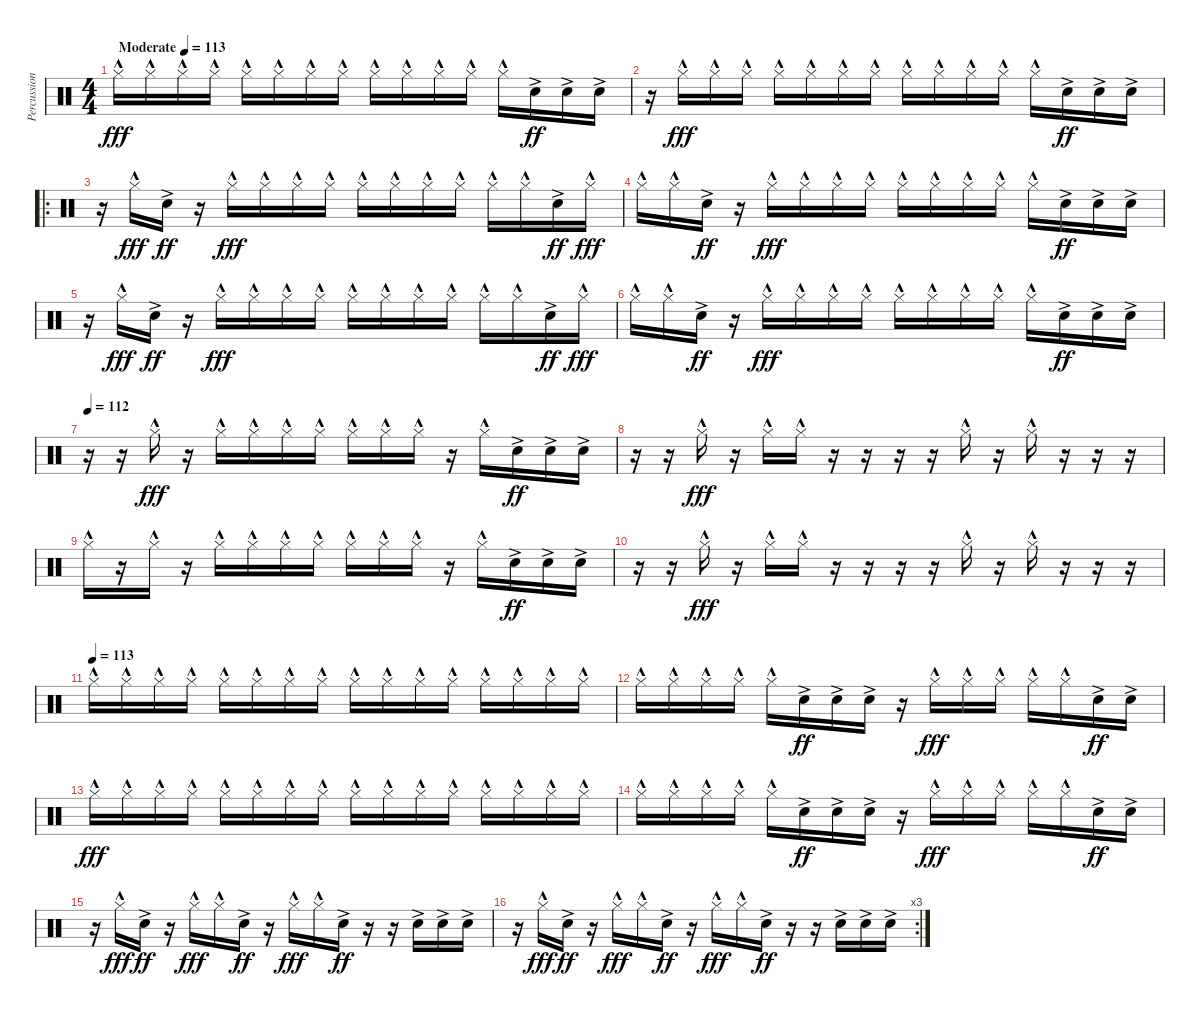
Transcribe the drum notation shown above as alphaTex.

\track ("Percussion" "Percussion") {instrument percussion}
\staff {score}
\articulation defaults
\ts (4 4)
\tempo (113 "Moderate")
\clef neutral
\ks c "Hi-Hat (closed)"{hac}.16{dy fff} "Hi-Hat (closed)"{hac}.16 "Hi-Hat (closed)"{hac}.16 "Hi-Hat (closed)"{hac}.16 "Hi-Hat (closed)"{hac}.16 "Hi-Hat (closed)"{hac}.16 "Hi-Hat (closed)"{hac}.16 "Hi-Hat (closed)"{hac}.16 "Hi-Hat (closed)"{hac}.16 "Hi-Hat (closed)"{hac}.16 "Hi-Hat (closed)"{hac}.16 "Hi-Hat (closed)"{hac}.16 "Hi-Hat (closed)"{hac}.16 "Snare (hit) 2"{ac}.16{dy ff} "Snare (hit) 2"{ac}.16 "Snare (hit) 2"{ac}.16
|
r.16 "Hi-Hat (closed)"{hac}.16{dy fff} "Hi-Hat (closed)"{hac}.16 "Hi-Hat (closed)"{hac}.16 "Hi-Hat (closed)"{hac}.16 "Hi-Hat (closed)"{hac}.16 "Hi-Hat (closed)"{hac}.16 "Hi-Hat (closed)"{hac}.16 "Hi-Hat (closed)"{hac}.16 "Hi-Hat (closed)"{hac}.16 "Hi-Hat (closed)"{hac}.16 "Hi-Hat (closed)"{hac}.16 "Hi-Hat (closed)"{hac}.16 "Snare (hit) 2"{ac}.16{dy ff} "Snare (hit) 2"{ac}.16 "Snare (hit) 2"{ac}.16 |
\ro
r.16 "Hi-Hat (closed)"{hac}.16{dy fff} "Snare (hit) 2"{ac}.16{dy ff} r.16 "Hi-Hat (closed)"{hac}.16{dy fff} "Hi-Hat (closed)"{hac}.16 "Hi-Hat (closed)"{hac}.16 "Hi-Hat (closed)"{hac}.16 "Hi-Hat (closed)"{hac}.16 "Hi-Hat (closed)"{hac}.16 "Hi-Hat (closed)"{hac}.16 "Hi-Hat (closed)"{hac}.16 "Hi-Hat (closed)"{hac}.16 "Hi-Hat (closed)"{hac}.16 "Snare (hit) 2"{ac}.16{dy ff} "Hi-Hat (closed)"{hac}.16{dy fff} |
"Hi-Hat (closed)"{hac}.16 "Hi-Hat (closed)"{hac}.16 "Snare (hit) 2"{ac}.16{dy ff} r.16 "Hi-Hat (closed)"{hac}.16{dy fff} "Hi-Hat (closed)"{hac}.16 "Hi-Hat (closed)"{hac}.16 "Hi-Hat (closed)"{hac}.16 "Hi-Hat (closed)"{hac}.16 "Hi-Hat (closed)"{hac}.16 "Hi-Hat (closed)"{hac}.16 "Hi-Hat (closed)"{hac}.16 "Hi-Hat (closed)"{hac}.16 "Snare (hit) 2"{ac}.16{dy ff} "Snare (hit) 2"{ac}.16 "Snare (hit) 2"{ac}.16 |
r.16 "Hi-Hat (closed)"{hac}.16{dy fff} "Snare (hit) 2"{ac}.16{dy ff} r.16 "Hi-Hat (closed)"{hac}.16{dy fff} "Hi-Hat (closed)"{hac}.16 "Hi-Hat (closed)"{hac}.16 "Hi-Hat (closed)"{hac}.16 "Hi-Hat (closed)"{hac}.16 "Hi-Hat (closed)"{hac}.16 "Hi-Hat (closed)"{hac}.16 "Hi-Hat (closed)"{hac}.16 "Hi-Hat (closed)"{hac}.16 "Hi-Hat (closed)"{hac}.16 "Snare (hit) 2"{ac}.16{dy ff} "Hi-Hat (closed)"{hac}.16{dy fff} |
"Hi-Hat (closed)"{hac}.16 "Hi-Hat (closed)"{hac}.16 "Snare (hit) 2"{ac}.16{dy ff} r.16 "Hi-Hat (closed)"{hac}.16{dy fff} "Hi-Hat (closed)"{hac}.16 "Hi-Hat (closed)"{hac}.16 "Hi-Hat (closed)"{hac}.16 "Hi-Hat (closed)"{hac}.16 "Hi-Hat (closed)"{hac}.16 "Hi-Hat (closed)"{hac}.16 "Hi-Hat (closed)"{hac}.16 "Hi-Hat (closed)"{hac}.16 "Snare (hit) 2"{ac}.16{dy ff} "Snare (hit) 2"{ac}.16 "Snare (hit) 2"{ac}.16 |
\tempo 112
r.16 r.16 "Hi-Hat (closed)"{hac}.16{dy fff} r.16 "Hi-Hat (closed)"{hac}.16 "Hi-Hat (closed)"{hac}.16 "Hi-Hat (closed)"{hac}.16 "Hi-Hat (closed)"{hac}.16 "Hi-Hat (closed)"{hac}.16 "Hi-Hat (closed)"{hac}.16 "Hi-Hat (closed)"{hac}.16 r.16 "Hi-Hat (closed)"{hac}.16 "Snare (hit) 2"{ac}.16{dy ff} "Snare (hit) 2"{ac}.16 "Snare (hit) 2"{ac}.16 |
r.16 r.16 "Hi-Hat (closed)"{hac}.16{dy fff} r.16 "Hi-Hat (closed)"{hac}.16 "Hi-Hat (closed)"{hac}.16 r.16 r.16 r.16 r.16 "Hi-Hat (closed)"{hac}.16 r.16 "Hi-Hat (closed)"{hac}.16 r.16 r.16 r.16 |
"Hi-Hat (closed)"{hac}.16 r.16 "Hi-Hat (closed)"{hac}.16 r.16 "Hi-Hat (closed)"{hac}.16 "Hi-Hat (closed)"{hac}.16 "Hi-Hat (closed)"{hac}.16 "Hi-Hat (closed)"{hac}.16 "Hi-Hat (closed)"{hac}.16 "Hi-Hat (closed)"{hac}.16 "Hi-Hat (closed)"{hac}.16 r.16 "Hi-Hat (closed)"{hac}.16 "Snare (hit) 2"{ac}.16{dy ff} "Snare (hit) 2"{ac}.16 "Snare (hit) 2"{ac}.16 |
r.16 r.16 "Hi-Hat (closed)"{hac}.16{dy fff} r.16 "Hi-Hat (closed)"{hac}.16 "Hi-Hat (closed)"{hac}.16 r.16 r.16 r.16 r.16 "Hi-Hat (closed)"{hac}.16 r.16 "Hi-Hat (closed)"{hac}.16 r.16 r.16 r.16 |
\tempo (113)
"Hi-Hat (closed)"{hac}.16 "Hi-Hat (closed)"{hac}.16 "Hi-Hat (closed)"{hac}.16 "Hi-Hat (closed)"{hac}.16 "Hi-Hat (closed)"{hac}.16 "Hi-Hat (closed)"{hac}.16 "Hi-Hat (closed)"{hac}.16 "Hi-Hat (closed)"{hac}.16 "Hi-Hat (closed)"{hac}.16 "Hi-Hat (closed)"{hac}.16 "Hi-Hat (closed)"{hac}.16 "Hi-Hat (closed)"{hac}.16 "Hi-Hat (closed)"{hac}.16 "Hi-Hat (closed)"{hac}.16 "Hi-Hat (closed)"{hac}.16 "Hi-Hat (closed)"{hac}.16 |
"Hi-Hat (closed)"{hac}.16 "Hi-Hat (closed)"{hac}.16 "Hi-Hat (closed)"{hac}.16 "Hi-Hat (closed)"{hac}.16 "Hi-Hat (closed)"{hac}.16 "Snare (hit) 2"{ac}.16{dy ff} "Snare (hit) 2"{ac}.16 "Snare (hit) 2"{ac}.16 r.16 "Hi-Hat (closed)"{hac}.16{dy fff} "Hi-Hat (closed)"{hac}.16 "Hi-Hat (closed)"{hac}.16 "Hi-Hat (closed)"{hac}.16 "Hi-Hat (closed)"{hac}.16 "Snare (hit) 2"{ac}.16{dy ff} "Snare (hit) 2"{ac}.16 |
"Hi-Hat (closed)"{hac}.16{dy fff} "Hi-Hat (closed)"{hac}.16 "Hi-Hat (closed)"{hac}.16 "Hi-Hat (closed)"{hac}.16 "Hi-Hat (closed)"{hac}.16 "Hi-Hat (closed)"{hac}.16 "Hi-Hat (closed)"{hac}.16 "Hi-Hat (closed)"{hac}.16 "Hi-Hat (closed)"{hac}.16 "Hi-Hat (closed)"{hac}.16 "Hi-Hat (closed)"{hac}.16 "Hi-Hat (closed)"{hac}.16 "Hi-Hat (closed)"{hac}.16 "Hi-Hat (closed)"{hac}.16 "Hi-Hat (closed)"{hac}.16 "Hi-Hat (closed)"{hac}.16 |
"Hi-Hat (closed)"{hac}.16 "Hi-Hat (closed)"{hac}.16 "Hi-Hat (closed)"{hac}.16 "Hi-Hat (closed)"{hac}.16 "Hi-Hat (closed)"{hac}.16 "Snare (hit) 2"{ac}.16{dy ff} "Snare (hit) 2"{ac}.16 "Snare (hit) 2"{ac}.16 r.16 "Hi-Hat (closed)"{hac}.16{dy fff} "Hi-Hat (closed)"{hac}.16 "Hi-Hat (closed)"{hac}.16 "Hi-Hat (closed)"{hac}.16 "Hi-Hat (closed)"{hac}.16 "Snare (hit) 2"{ac}.16{dy ff} "Snare (hit) 2"{ac}.16 |
r.16 "Hi-Hat (closed)"{hac}.16{dy fff} "Snare (hit) 2"{ac}.16{dy ff} r.16 "Hi-Hat (closed)"{hac}.16{dy fff} "Hi-Hat (closed)"{hac}.16 "Snare (hit) 2"{ac}.16{dy ff} r.16 "Hi-Hat (closed)"{hac}.16{dy fff} "Hi-Hat (closed)"{hac}.16 "Snare (hit) 2"{ac}.16{dy ff} r.16 r.16 "Snare (hit) 2"{ac}.16 "Snare (hit) 2"{ac}.16 "Snare (hit) 2"{ac}.16 |
\rc 3
r.16 "Hi-Hat (closed)"{hac}.16{dy fff} "Snare (hit) 2"{ac}.16{dy ff} r.16 "Hi-Hat (closed)"{hac}.16{dy fff} "Hi-Hat (closed)"{hac}.16 "Snare (hit) 2"{ac}.16{dy ff} r.16 "Hi-Hat (closed)"{hac}.16{dy fff} "Hi-Hat (closed)"{hac}.16 "Snare (hit) 2"{ac}.16{dy ff} r.16 r.16 "Snare (hit) 2"{ac}.16 "Snare (hit) 2"{ac}.16 "Snare (hit) 2"{ac}.16
